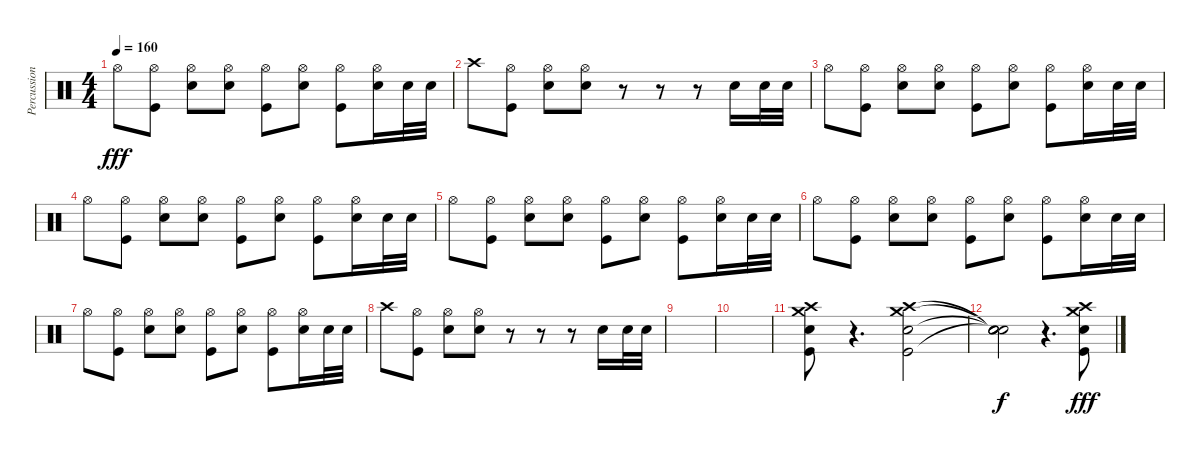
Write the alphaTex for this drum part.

\track ("Percussion" "Percussion") {instrument percussion}
\staff {score}
\articulation defaults
\ts (4 4)
\tempo 160
\clef neutral
\ks c "Hi-Hat (open)".8{dy fff}
("Kick (hit)" "Hi-Hat (open)").8 ("Snare (hit) 2" "Hi-Hat (open)").8 ("Snare (hit) 2" "Hi-Hat (open)").8 ("Kick (hit)" "Hi-Hat (open)").8 ("Snare (hit) 2" "Hi-Hat (open)").8 ("Kick (hit)" "Hi-Hat (open)").8 ("Snare (hit) 2" "Hi-Hat (open)").16 "Snare (hit) 2".32 "Snare (hit) 2".32 |
"Crash high (hit)".8 ("Kick (hit)" "Hi-Hat (open)").8 ("Snare (hit) 2" "Hi-Hat (open)").8 ("Snare (hit) 2" "Hi-Hat (open)").8 r.8 r.8 r.8 "Snare (hit) 2".16 "Snare (hit) 2".32 "Snare (hit) 2".32 |
"Hi-Hat (open)".8 ("Kick (hit)" "Hi-Hat (open)").8 ("Snare (hit) 2" "Hi-Hat (open)").8 ("Snare (hit) 2" "Hi-Hat (open)").8 ("Kick (hit)" "Hi-Hat (open)").8 ("Snare (hit) 2" "Hi-Hat (open)").8 ("Kick (hit)" "Hi-Hat (open)").8 ("Snare (hit) 2" "Hi-Hat (open)").16 "Snare (hit) 2".32 "Snare (hit) 2".32 |
"Hi-Hat (open)".8 ("Kick (hit)" "Hi-Hat (open)").8 ("Snare (hit) 2" "Hi-Hat (open)").8 ("Snare (hit) 2" "Hi-Hat (open)").8 ("Kick (hit)" "Hi-Hat (open)").8 ("Snare (hit) 2" "Hi-Hat (open)").8 ("Kick (hit)" "Hi-Hat (open)").8 ("Snare (hit) 2" "Hi-Hat (open)").16 "Snare (hit) 2".32 "Snare (hit) 2".32 |
"Hi-Hat (open)".8 ("Kick (hit)" "Hi-Hat (open)").8 ("Snare (hit) 2" "Hi-Hat (open)").8 ("Snare (hit) 2" "Hi-Hat (open)").8 ("Kick (hit)" "Hi-Hat (open)").8 ("Snare (hit) 2" "Hi-Hat (open)").8 ("Kick (hit)" "Hi-Hat (open)").8 ("Snare (hit) 2" "Hi-Hat (open)").16 "Snare (hit) 2".32 "Snare (hit) 2".32 |
"Hi-Hat (open)".8 ("Kick (hit)" "Hi-Hat (open)").8 ("Snare (hit) 2" "Hi-Hat (open)").8 ("Snare (hit) 2" "Hi-Hat (open)").8 ("Kick (hit)" "Hi-Hat (open)").8 ("Snare (hit) 2" "Hi-Hat (open)").8 ("Kick (hit)" "Hi-Hat (open)").8 ("Snare (hit) 2" "Hi-Hat (open)").16 "Snare (hit) 2".32 "Snare (hit) 2".32 |
"Hi-Hat (open)".8 ("Kick (hit)" "Hi-Hat (open)").8 ("Snare (hit) 2" "Hi-Hat (open)").8 ("Snare (hit) 2" "Hi-Hat (open)").8 ("Kick (hit)" "Hi-Hat (open)").8 ("Snare (hit) 2" "Hi-Hat (open)").8 ("Kick (hit)" "Hi-Hat (open)").8 ("Snare (hit) 2" "Hi-Hat (open)").16 "Snare (hit) 2".32 "Snare (hit) 2".32 |
"Crash high (hit)".8 ("Kick (hit)" "Hi-Hat (open)").8 ("Snare (hit) 2" "Hi-Hat (open)").8 ("Snare (hit) 2" "Hi-Hat (open)").8 r.8 r.8 r.8 "Snare (hit) 2".16 "Snare (hit) 2".32 "Snare (hit) 2".32 |
|
|
("Kick (hit)" "Snare (hit) 2" "Crash high (hit)" "Crash medium (hit)").8 r.4{d} ("Kick (hit)" "Snare (hit) 2" "Crash high (hit)" "Crash medium (hit)").2 |
("Snare (hit)"{t} "Snare (hit)"{t} "Snare (hit)"{t} "Snare (hit)"{t}).2{dy f} r.4{d} ("Kick (hit)" "Snare (hit) 2" "Crash high (hit)" "Crash medium (hit)").8{dy fff}
